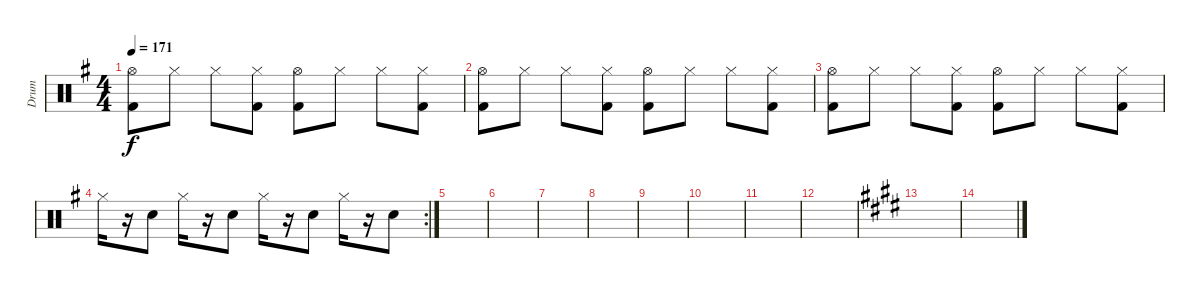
\track ("Drum" "Drum") {instrument percussion}
\staff {score}
\articulation defaults
\ts (4 4)
\tempo 171
\clef neutral
\ks g
("Hi-Hat (open)" "Kick (hit) 2").8{dy f} "Hi-Hat (closed)".8 "Hi-Hat (closed)".8 ("Hi-Hat (closed)" "Kick (hit) 2").8 ("Hi-Hat (open)" "Kick (hit) 2").8 "Hi-Hat (closed)".8 "Hi-Hat (closed)".8 ("Hi-Hat (closed)" "Kick (hit) 2").8 |
("Hi-Hat (open)" "Kick (hit) 2").8 "Hi-Hat (closed)".8 "Hi-Hat (closed)".8 ("Hi-Hat (closed)" "Kick (hit) 2").8 ("Hi-Hat (open)" "Kick (hit) 2").8 "Hi-Hat (closed)".8 "Hi-Hat (closed)".8 ("Hi-Hat (closed)" "Kick (hit) 2").8 |
("Hi-Hat (open)" "Kick (hit) 2").8 "Hi-Hat (closed)".8 "Hi-Hat (closed)".8 ("Hi-Hat (closed)" "Kick (hit) 2").8 ("Hi-Hat (open)" "Kick (hit) 2").8 "Hi-Hat (closed)".8 "Hi-Hat (closed)".8 ("Hi-Hat (closed)" "Kick (hit) 2").8 |
\rc 2 "Hi-Hat (closed)".16
r.16 "Snare (hit) 2".8 "Hi-Hat (closed)".16 r.16 "Snare (hit) 2".8 "Hi-Hat (closed)".16 r.16 "Snare (hit) 2".8 "Hi-Hat (closed)".16 r.16 "Snare (hit) 2".8 |
|
|
|
|
|
|
|
|
\ks e
|
\ks c#minor
